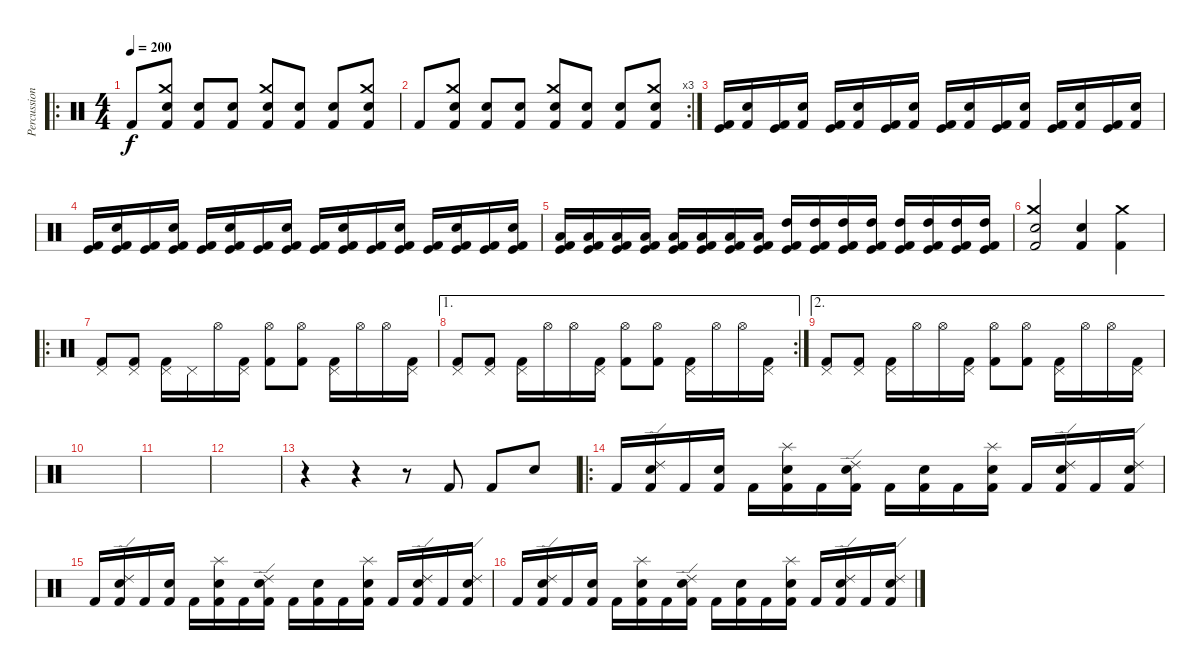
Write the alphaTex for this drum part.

\track ("Percussion" "Percussion") {instrument percussion}
\staff {score}
\articulation defaults
\ro
\ts (4 4)
\tempo 200
\clef neutral
\ks c "Kick (hit) 2".8{dy f}
("Crash medium (hit)" "Electric Snare (hit)" "Kick (hit) 2").8 ("Electric Snare (hit)" "Kick (hit) 2").8 ("Electric Snare (hit)" "Kick (hit) 2").8 ("Crash medium (hit)" "Electric Snare (hit)" "Kick (hit) 2").8 ("Electric Snare (hit)" "Kick (hit) 2").8 ("Electric Snare (hit)" "Kick (hit) 2").8 ("Crash medium (hit)" "Electric Snare (hit)" "Kick (hit) 2").8 |
\rc 3 "Kick (hit) 2".8
("Crash medium (hit)" "Electric Snare (hit)" "Kick (hit) 2").8 ("Electric Snare (hit)" "Kick (hit) 2").8 ("Electric Snare (hit)" "Kick (hit) 2").8 ("Crash medium (hit)" "Electric Snare (hit)" "Kick (hit) 2").8 ("Electric Snare (hit)" "Kick (hit) 2").8 ("Electric Snare (hit)" "Kick (hit) 2").8 ("Crash medium (hit)" "Electric Snare (hit)" "Kick (hit) 2").8 |
("Kick (hit)" "Kick (hit) 2").16 ("Electric Snare (hit)" "Kick (hit) 2").16 ("Kick (hit)" "Kick (hit) 2").16 ("Electric Snare (hit)" "Kick (hit) 2").16 ("Kick (hit)" "Kick (hit) 2").16 ("Electric Snare (hit)" "Kick (hit) 2").16 ("Kick (hit)" "Kick (hit) 2").16 ("Electric Snare (hit)" "Kick (hit) 2").16 ("Kick (hit)" "Kick (hit) 2").16 ("Electric Snare (hit)" "Kick (hit) 2").16 ("Kick (hit)" "Kick (hit) 2").16 ("Electric Snare (hit)" "Kick (hit) 2").16 ("Kick (hit)" "Kick (hit) 2").16 ("Electric Snare (hit)" "Kick (hit) 2").16 ("Kick (hit)" "Kick (hit) 2").16 ("Electric Snare (hit)" "Kick (hit) 2").16 |
("Kick (hit)" "Kick (hit) 2").16 ("Electric Snare (hit)" "Kick (hit)" "Kick (hit) 2").16 ("Kick (hit)" "Kick (hit) 2").16 ("Electric Snare (hit)" "Kick (hit)" "Kick (hit) 2").16 ("Kick (hit)" "Kick (hit) 2").16 ("Electric Snare (hit)" "Kick (hit)" "Kick (hit) 2").16 ("Kick (hit)" "Kick (hit) 2").16 ("Electric Snare (hit)" "Kick (hit)" "Kick (hit) 2").16 ("Kick (hit)" "Kick (hit) 2").16 ("Electric Snare (hit)" "Kick (hit)" "Kick (hit) 2").16 ("Kick (hit)" "Kick (hit) 2").16 ("Electric Snare (hit)" "Kick (hit)" "Kick (hit) 2").16 ("Kick (hit)" "Kick (hit) 2").16 ("Electric Snare (hit)" "Kick (hit)" "Kick (hit) 2").16 ("Kick (hit)" "Kick (hit) 2").16 ("Electric Snare (hit)" "Kick (hit)" "Kick (hit) 2").16 |
("Low Tom (hit)" "Kick (hit)" "Kick (hit) 2").16 ("Low Tom (hit)" "Kick (hit)" "Kick (hit) 2").16 ("Low Tom (hit)" "Kick (hit)" "Kick (hit) 2").16 ("Low Tom (hit)" "Kick (hit)" "Kick (hit) 2").16 ("Low Tom (hit)" "Kick (hit)" "Kick (hit) 2").16 ("Low Tom (hit)" "Kick (hit)" "Kick (hit) 2").16 ("Low Tom (hit)" "Kick (hit)" "Kick (hit) 2").16 ("Low Tom (hit)" "Kick (hit)" "Kick (hit) 2").16 ("High Tom (hit)" "Kick (hit)" "Kick (hit) 2").16 ("High Tom (hit)" "Kick (hit)" "Kick (hit) 2").16 ("High Tom (hit)" "Kick (hit)" "Kick (hit) 2").16 ("High Tom (hit)" "Kick (hit)" "Kick (hit) 2").16 ("High Tom (hit)" "Kick (hit)" "Kick (hit) 2").16 ("High Tom (hit)" "Kick (hit)" "Kick (hit) 2").16 ("High Tom (hit)" "Kick (hit)" "Kick (hit) 2").16 ("High Tom (hit)" "Kick (hit)" "Kick (hit) 2").16 |
("Crash medium (hit)" "Electric Snare (hit)" "Kick (hit) 2").2 ("Electric Snare (hit)" "Kick (hit) 2").4 ("Crash medium (hit)" "Kick (hit) 2").4 |
\ro
("Pedal Hi-Hat (hit)" "Kick (hit) 2").8 ("Pedal Hi-Hat (hit)" "Kick (hit) 2").8 ("Pedal Hi-Hat (hit)" "Kick (hit) 2").16 "Pedal Hi-Hat (hit)".16 "Hi-Hat (open)".16 ("Pedal Hi-Hat (hit)" "Kick (hit) 2").16 ("Hi-Hat (open)" "Kick (hit) 2").8 ("Hi-Hat (open)" "Kick (hit) 2").8 ("Pedal Hi-Hat (hit)" "Kick (hit) 2").16 "Hi-Hat (open)".16 "Hi-Hat (open)".16 ("Pedal Hi-Hat (hit)" "Kick (hit) 2").16 |
\ae 1
\rc 2
("Pedal Hi-Hat (hit)" "Kick (hit) 2").8 ("Pedal Hi-Hat (hit)" "Kick (hit) 2").8 ("Pedal Hi-Hat (hit)" "Kick (hit) 2").16 "Hi-Hat (open)".16 "Hi-Hat (open)".16 ("Pedal Hi-Hat (hit)" "Kick (hit) 2").16 ("Hi-Hat (open)" "Kick (hit) 2").8 ("Hi-Hat (open)" "Kick (hit) 2").8 ("Pedal Hi-Hat (hit)" "Kick (hit) 2").16 "Hi-Hat (open)".16 "Hi-Hat (open)".16 ("Pedal Hi-Hat (hit)" "Kick (hit) 2").16 |
\ae 2
("Pedal Hi-Hat (hit)" "Kick (hit) 2").8 ("Pedal Hi-Hat (hit)" "Kick (hit) 2").8 ("Pedal Hi-Hat (hit)" "Kick (hit) 2").16 "Hi-Hat (open)".16 "Hi-Hat (open)".16 ("Pedal Hi-Hat (hit)" "Kick (hit) 2").16 ("Hi-Hat (open)" "Kick (hit) 2").8 ("Hi-Hat (open)" "Kick (hit) 2").8 ("Pedal Hi-Hat (hit)" "Kick (hit) 2").16 "Hi-Hat (open)".16 "Hi-Hat (open)".16 ("Pedal Hi-Hat (hit)" "Kick (hit) 2").16 |
|
|
|
r.4 r.4 r.8 "Kick (hit) 2".8 "Kick (hit) 2".8 "Electric Snare (hit)".8 |
\ro "Kick (hit) 2".16
("Ride (edge) 2" "Electric Snare (hit)" "Kick (hit) 2").16 "Kick (hit) 2".16 ("Electric Snare (hit)" "Kick (hit) 2").16 "Kick (hit) 2".16 ("Splash (hit)" "Electric Snare (hit)" "Kick (hit) 2").16 "Kick (hit) 2".16 ("Ride (edge) 2" "Electric Snare (hit)" "Kick (hit) 2").16 "Kick (hit) 2".16 ("Electric Snare (hit)" "Kick (hit) 2").16 "Kick (hit) 2".16 ("Splash (hit)" "Electric Snare (hit)" "Kick (hit) 2").16 "Kick (hit) 2".16 ("Ride (edge) 2" "Electric Snare (hit)" "Kick (hit) 2").16 "Kick (hit) 2".16 ("Ride (edge) 2" "Electric Snare (hit)" "Kick (hit) 2").16 |
"Kick (hit) 2".16 ("Ride (edge) 2" "Electric Snare (hit)" "Kick (hit) 2").16 "Kick (hit) 2".16 ("Electric Snare (hit)" "Kick (hit) 2").16 "Kick (hit) 2".16 ("Splash (hit)" "Electric Snare (hit)" "Kick (hit) 2").16 "Kick (hit) 2".16 ("Ride (edge) 2" "Electric Snare (hit)" "Kick (hit) 2").16 "Kick (hit) 2".16 ("Electric Snare (hit)" "Kick (hit) 2").16 "Kick (hit) 2".16 ("Splash (hit)" "Electric Snare (hit)" "Kick (hit) 2").16 "Kick (hit) 2".16 ("Ride (edge) 2" "Electric Snare (hit)" "Kick (hit) 2").16 "Kick (hit) 2".16 ("Ride (edge) 2" "Electric Snare (hit)" "Kick (hit) 2").16 |
"Kick (hit) 2".16 ("Ride (edge) 2" "Electric Snare (hit)" "Kick (hit) 2").16 "Kick (hit) 2".16 ("Electric Snare (hit)" "Kick (hit) 2").16 "Kick (hit) 2".16 ("Splash (hit)" "Electric Snare (hit)" "Kick (hit) 2").16 "Kick (hit) 2".16 ("Ride (edge) 2" "Electric Snare (hit)" "Kick (hit) 2").16 "Kick (hit) 2".16 ("Electric Snare (hit)" "Kick (hit) 2").16 "Kick (hit) 2".16 ("Splash (hit)" "Electric Snare (hit)" "Kick (hit) 2").16 "Kick (hit) 2".16 ("Ride (edge) 2" "Electric Snare (hit)" "Kick (hit) 2").16 "Kick (hit) 2".16 ("Ride (edge) 2" "Electric Snare (hit)" "Kick (hit) 2").16
